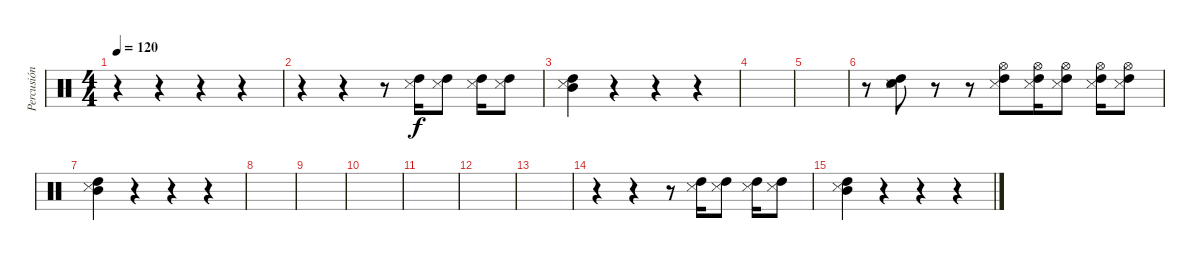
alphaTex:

\track ("Percusión" "Percusión") {instrument percussion}
\staff {score}
\articulation defaults
\ts (4 4)
\tempo 120
\clef neutral
\ks c
r.4{dy f} r.4 r.4 r.4 |
r.4 r.4 r.8 ("Snare (side stick) 3" "High Tom (hit)").16 ("Snare (side stick) 3" "High Tom (hit)").8 ("Snare (side stick) 3" "High Tom (hit)").16 ("Snare (side stick) 3" "High Tom (hit)").8 |
("Snare (side stick) 3" "Mid Tom (hit)" "High Tom (hit)").4 r.4 r.4 r.4 |
|
|
r.8 ("Snare (side stick) 3" "Snare (hit) 2" "High Tom (hit)").8 r.8 r.8 ("Snare (side stick) 3" "Hi-Hat (open)" "High Tom (hit)").8 ("Snare (side stick) 3" "Hi-Hat (open)" "High Tom (hit)").16 ("Snare (side stick) 3" "Hi-Hat (open)" "High Tom (hit)").8 ("Snare (side stick) 3" "Hi-Hat (open)" "High Tom (hit)").16 ("Snare (side stick) 3" "Hi-Hat (open)" "High Tom (hit)").8 |
("Snare (side stick) 3" "Mid Tom (hit)" "High Tom (hit)").4 r.4 r.4 r.4 |
|
|
|
|
|
|
r.4 r.4 r.8 ("Snare (side stick) 3" "High Tom (hit)").16 ("Snare (side stick) 3" "High Tom (hit)").8 ("Snare (side stick) 3" "High Tom (hit)").16 ("Snare (side stick) 3" "High Tom (hit)").8 |
("Snare (side stick) 3" "Mid Tom (hit)" "High Tom (hit)").4 r.4 r.4 r.4
